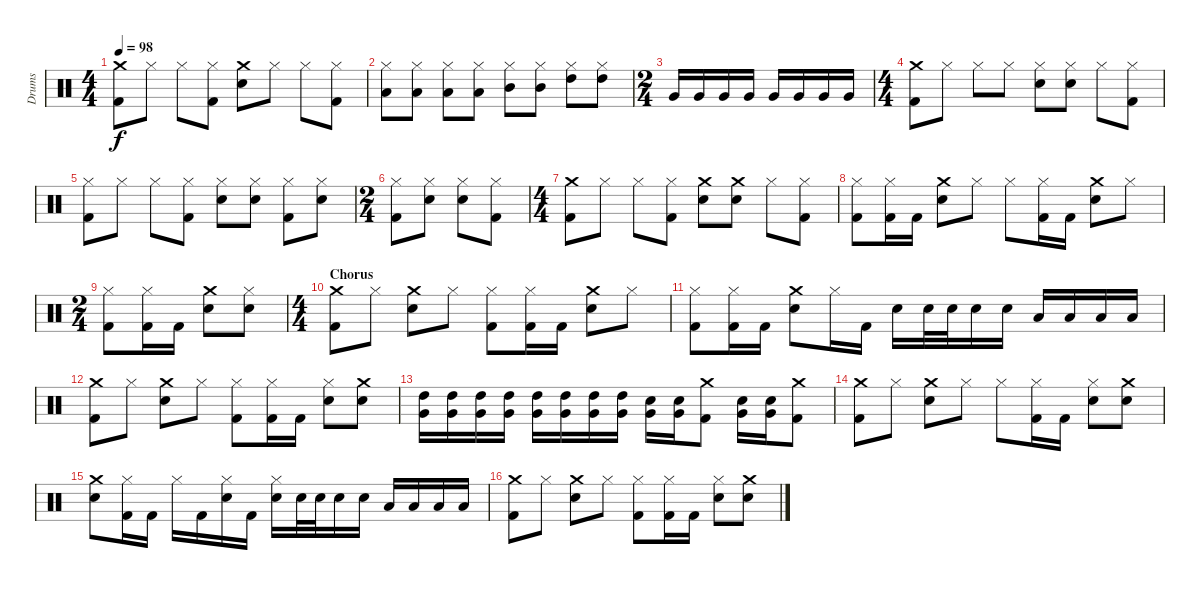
\track ("Drums" "Drums") {instrument percussion}
\staff {score}
\articulation defaults
\ts (4 4)
\tempo 98
\clef neutral
\ks c
("Crash medium (hit)" "Kick (hit) 2").8{dy f} "Hi-Hat (closed)".8 "Hi-Hat (closed)".8 ("Kick (hit) 2" "Hi-Hat (closed)").8 ("Crash medium (hit)" "Snare (hit) 2").8 "Hi-Hat (closed)".8 "Hi-Hat (closed)".8 ("Kick (hit) 2" "Hi-Hat (closed)").8 |
("Low Tom (hit)" "Hi-Hat (closed)").8 ("Low Tom (hit)" "Hi-Hat (closed)").8 ("Low Tom (hit)" "Hi-Hat (closed)").8 ("Low Tom (hit)" "Hi-Hat (closed)").8 ("Mid Tom (hit)" "Hi-Hat (closed)").8 ("Mid Tom (hit)" "Hi-Hat (closed)").8 ("High Tom (hit)" "Hi-Hat (closed)").8 ("High Tom (hit)" "Hi-Hat (closed)").8 |
\ts (2 4)
"Very Low Tom (hit)".16 "Very Low Tom (hit)".16 "Very Low Tom (hit)".16 "Very Low Tom (hit)".16 "Very Low Tom (hit)".16 "Very Low Tom (hit)".16 "Very Low Tom (hit)".16 "Very Low Tom (hit)".16 |
\ts (4 4)
("Crash medium (hit)" "Kick (hit) 2").8 "Hi-Hat (closed)".8 "Hi-Hat (closed)".8 "Hi-Hat (closed)".8 ("Hi-Hat (closed)" "Snare (hit) 2").8 ("Snare (hit) 2" "Hi-Hat (closed)").8 "Hi-Hat (closed)".8 ("Kick (hit) 2" "Hi-Hat (closed)").8 |
("Hi-Hat (closed)" "Kick (hit) 2").8 "Hi-Hat (closed)".8 "Hi-Hat (closed)".8 ("Hi-Hat (closed)" "Kick (hit) 2").8 ("Snare (hit) 2" "Hi-Hat (closed)").8 ("Snare (hit) 2" "Hi-Hat (closed)").8 ("Hi-Hat (closed)" "Kick (hit) 2").8 ("Snare (hit) 2" "Hi-Hat (closed)").8 |
\ts (2 4)
("Kick (hit) 2" "Hi-Hat (closed)").8 ("Snare (hit) 2" "Hi-Hat (closed)").8 ("Snare (hit) 2" "Hi-Hat (closed)").8 ("Kick (hit) 2" "Hi-Hat (closed)").8 |
\ts (4 4)
("Crash medium (hit)" "Kick (hit) 2").8 "Hi-Hat (closed)".8 "Hi-Hat (closed)".8 ("Kick (hit) 2" "Hi-Hat (closed)").8 ("Crash medium (hit)" "Snare (hit) 2").8 ("Crash medium (hit)" "Snare (hit) 2").8 "Hi-Hat (closed)".8 ("Kick (hit) 2" "Hi-Hat (closed)").8 |
("Hi-Hat (closed)" "Kick (hit) 2").8 ("Hi-Hat (closed)" "Kick (hit) 2").16 "Kick (hit) 2".16 ("Crash medium (hit)" "Snare (hit) 2").8 "Hi-Hat (closed)".8 "Hi-Hat (closed)".8 ("Hi-Hat (closed)" "Kick (hit) 2").16 "Kick (hit) 2".16 ("Crash medium (hit)" "Snare (hit) 2").8 "Hi-Hat (closed)".8 |
\ts (2 4)
("Hi-Hat (closed)" "Kick (hit) 2").8 ("Hi-Hat (closed)" "Kick (hit) 2").16 "Kick (hit) 2".16 ("Crash medium (hit)" "Snare (hit) 2").8 ("Hi-Hat (closed)" "Snare (hit) 2").8 |
\ts (4 4)
\section ("" "Chorus")
("Crash medium (hit)" "Kick (hit) 2").8 "Hi-Hat (closed)".8 ("Crash medium (hit)" "Snare (hit) 2").8 "Hi-Hat (closed)".8 ("Kick (hit) 2" "Hi-Hat (closed)").8 ("Kick (hit) 2" "Hi-Hat (closed)").16 "Kick (hit) 2".16 ("Crash medium (hit)" "Snare (hit) 2").8 "Hi-Hat (closed)".8 |
("Hi-Hat (closed)" "Kick (hit) 2").8 ("Hi-Hat (closed)" "Kick (hit) 2").16 "Kick (hit) 2".16 ("Crash medium (hit)" "Snare (hit) 2").8 "Hi-Hat (closed)".16 "Kick (hit) 2".16 "Snare (hit) 2".16 "Snare (hit) 2".32 "Snare (hit) 2".32 "Snare (hit) 2".16 "Snare (hit) 2".16 "Low Tom (hit)".16 "Low Tom (hit)".16 "Low Tom (hit)".16 "Low Tom (hit)".16 |
("Crash medium (hit)" "Kick (hit) 2").8 "Hi-Hat (closed)".8 ("Crash medium (hit)" "Snare (hit) 2").8 "Hi-Hat (closed)".8 ("Hi-Hat (closed)" "Kick (hit) 2").8 ("Hi-Hat (closed)" "Kick (hit) 2").16 "Kick (hit) 2".16 ("Snare (hit) 2" "Hi-Hat (closed)").8 ("Crash medium (hit)" "Snare (hit) 2").8 |
("High Tom (hit)" "Very Low Tom (hit)").16 ("High Tom (hit)" "Very Low Tom (hit)").16 ("High Tom (hit)" "Very Low Tom (hit)").16 ("High Tom (hit)" "Very Low Tom (hit)").16 ("High Tom (hit)" "Very Low Tom (hit)").16 ("High Tom (hit)" "Very Low Tom (hit)").16 ("High Tom (hit)" "Very Low Tom (hit)").16 ("High Tom (hit)" "Very Low Tom (hit)").16 ("Snare (hit) 2" "Very Low Tom (hit)").16 ("Snare (hit) 2" "Very Low Tom (hit)").16 ("Kick (hit) 2" "Crash medium (hit)").8 ("Snare (hit) 2" "Very Low Tom (hit)").16 ("Snare (hit) 2" "Very Low Tom (hit)").16 ("Crash medium (hit)" "Kick (hit) 2").8 |
("Kick (hit) 2" "Crash medium (hit)").8 "Hi-Hat (closed)".8 ("Crash medium (hit)" "Snare (hit) 2").8 "Hi-Hat (closed)".8 "Hi-Hat (closed)".8 ("Hi-Hat (closed)" "Kick (hit) 2").16 "Kick (hit) 2".16 ("Snare (hit) 2" "Hi-Hat (closed)").8 ("Crash medium (hit)" "Snare (hit) 2").8 |
("Snare (hit) 2" "Crash medium (hit)").8 ("Hi-Hat (closed)" "Kick (hit) 2").16 "Kick (hit) 2".16 "Hi-Hat (closed)".16 "Kick (hit) 2".16 ("Snare (hit) 2" "Hi-Hat (closed)").16 "Kick (hit) 2".16 ("Snare (hit) 2" "Hi-Hat (closed)").16 "Snare (hit) 2".32 "Snare (hit) 2".32 "Snare (hit) 2".16 "Snare (hit) 2".16 "Low Tom (hit)".16 "Low Tom (hit)".16 "Low Tom (hit)".16 "Low Tom (hit)".16 |
("Crash medium (hit)" "Kick (hit) 2").8 "Hi-Hat (closed)".8 ("Crash medium (hit)" "Snare (hit) 2").8 "Hi-Hat (closed)".8 ("Kick (hit) 2" "Hi-Hat (closed)").8 ("Kick (hit) 2" "Hi-Hat (closed)").16 "Kick (hit) 2".16 ("Snare (hit) 2" "Hi-Hat (closed)").8 ("Crash medium (hit)" "Snare (hit) 2").8
